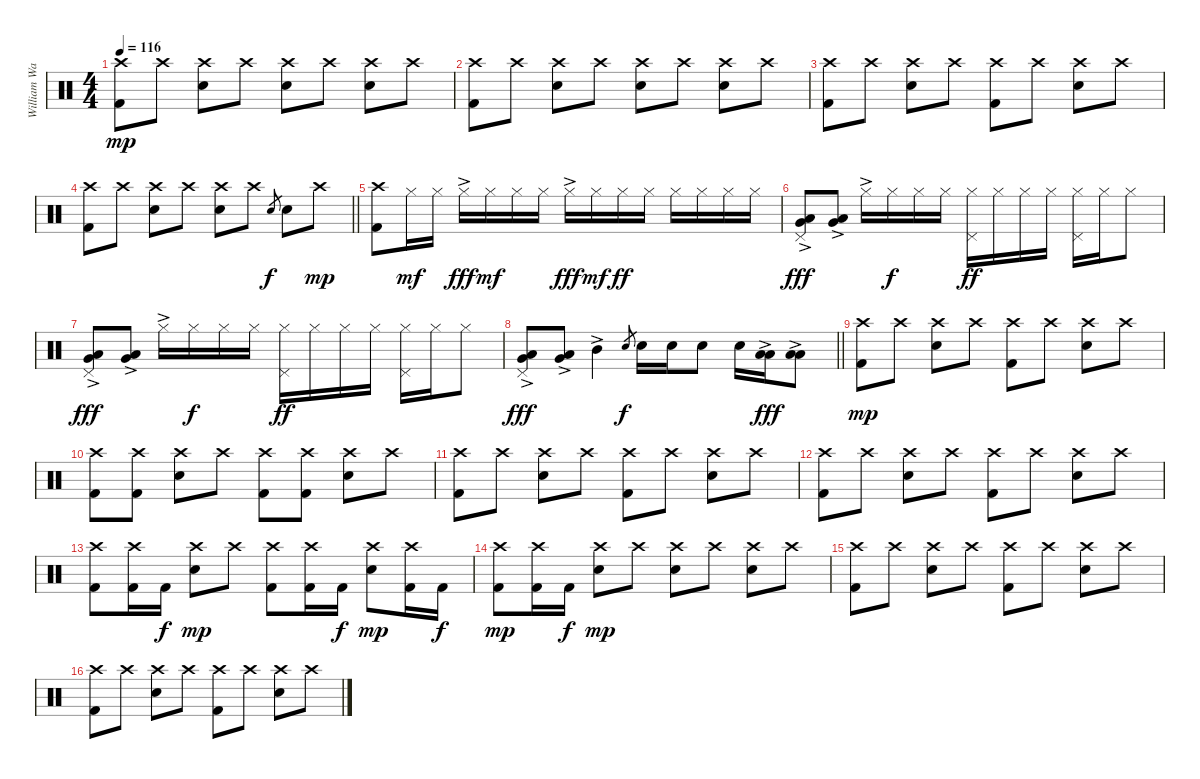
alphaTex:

\track ("William Ward" "William Wa") {instrument percussion}
\staff {score}
\articulation defaults
\ts (4 4)
\tempo 116
\clef neutral
\ks c
("Crash high (hit)" "Kick (hit) 2").8{dy mp} "Crash high (hit)".8 ("Crash high (hit)" "Snare (hit) 2").8 "Crash high (hit)".8 ("Crash high (hit)" "Snare (hit) 2").8 "Crash high (hit)".8 ("Crash high (hit)" "Snare (hit) 2").8 "Crash high (hit)".8 |
("Crash high (hit)" "Kick (hit) 2").8 "Crash high (hit)".8 ("Crash high (hit)" "Snare (hit) 2").8 "Crash high (hit)".8 ("Crash high (hit)" "Snare (hit) 2").8 "Crash high (hit)".8 ("Crash high (hit)" "Snare (hit) 2").8 "Crash high (hit)".8 |
("Crash high (hit)" "Kick (hit) 2").8 "Crash high (hit)".8 ("Crash high (hit)" "Snare (hit) 2").8 "Crash high (hit)".8 ("Crash high (hit)" "Kick (hit) 2").8 "Crash high (hit)".8 ("Crash high (hit)" "Snare (hit) 2").8 "Crash high (hit)".8 |
\barLineRight lightlight
("Crash high (hit)" "Kick (hit) 2").8 "Crash high (hit)".8 ("Crash high (hit)" "Snare (hit) 2").8 "Crash high (hit)".8 ("Crash high (hit)" "Snare (hit) 2").8 "Crash high (hit)".8 "Snare (hit) 2".8{gr dy f} "Snare (hit) 2".8 "Crash high (hit)".8{dy mp} |
("Crash high (hit)" "Kick (hit) 2").8 "Hi-Hat (closed)".16{dy mf} "Hi-Hat (closed)".16 "Hi-Hat (closed)"{ac}.16{dy fff} "Hi-Hat (closed)".16{dy mf} "Hi-Hat (closed)".16 "Hi-Hat (closed)".16 "Hi-Hat (closed)"{ac}.16{dy fff} "Hi-Hat (closed)".16{dy mf} "Hi-Hat (closed)".16{dy ff} "Hi-Hat (closed)".16 "Hi-Hat (closed)".16 "Hi-Hat (closed)".16 "Hi-Hat (closed)".16 "Hi-Hat (closed)".16 |
("Low Tom (hit)"{ac} "Very Low Tom (hit)"{ac} "Pedal Hi-Hat (hit)"{ac}).8{dy fff} ("Low Tom (hit)"{ac} "Very Low Tom (hit)"{ac}).8 "Hi-Hat (closed)"{ac}.16 "Hi-Hat (closed)".16{dy f} "Hi-Hat (closed)".16 "Hi-Hat (closed)".16 ("Hi-Hat (closed)" "Pedal Hi-Hat (hit)").16{dy ff} "Hi-Hat (closed)".16 "Hi-Hat (closed)".16 "Hi-Hat (closed)".16 ("Hi-Hat (closed)" "Pedal Hi-Hat (hit)").16 "Hi-Hat (closed)".16 "Hi-Hat (closed)".8 |
("Low Tom (hit)"{ac} "Very Low Tom (hit)"{ac} "Pedal Hi-Hat (hit)"{ac}).8{dy fff} ("Low Tom (hit)"{ac} "Very Low Tom (hit)"{ac}).8 "Hi-Hat (closed)"{ac}.16 "Hi-Hat (closed)".16{dy f} "Hi-Hat (closed)".16 "Hi-Hat (closed)".16 ("Hi-Hat (closed)" "Pedal Hi-Hat (hit)").16{dy ff} "Hi-Hat (closed)".16 "Hi-Hat (closed)".16 "Hi-Hat (closed)".16 ("Hi-Hat (closed)" "Pedal Hi-Hat (hit)").16 "Hi-Hat (closed)".16 "Hi-Hat (closed)".8 |
\barLineRight lightlight
("Low Tom (hit)"{ac} "Very Low Tom (hit)"{ac} "Pedal Hi-Hat (hit)"{ac}).8{dy fff} ("Low Tom (hit)"{ac} "Very Low Tom (hit)"{ac}).8 "Mid Tom (hit)"{ac}.4 "Snare (hit) 2".8{gr dy f} "Snare (hit) 2".16 "Snare (hit) 2".16 "Snare (hit) 2".8 "Snare (hit) 2".16 ("Low Tom (hit)"{ac} "Low Tom (hit)"{ac}).16{dy fff} ("Low Tom (hit)"{ac} "Low Tom (hit)"{ac}).8 |
("Crash high (hit)" "Kick (hit) 2").8{dy mp} "Crash high (hit)".8 ("Crash high (hit)" "Snare (hit) 2").8 "Crash high (hit)".8 ("Crash high (hit)" "Kick (hit) 2").8 "Crash high (hit)".8 ("Crash high (hit)" "Snare (hit) 2").8 "Crash high (hit)".8 |
("Crash high (hit)" "Kick (hit) 2").8 ("Crash high (hit)" "Kick (hit) 2").8 ("Crash high (hit)" "Snare (hit) 2").8 "Crash high (hit)".8 ("Crash high (hit)" "Kick (hit) 2").8 ("Crash high (hit)" "Kick (hit) 2").8 ("Crash high (hit)" "Snare (hit) 2").8 "Crash high (hit)".8 |
("Crash high (hit)" "Kick (hit) 2").8 "Crash high (hit)".8 ("Crash high (hit)" "Snare (hit) 2").8 "Crash high (hit)".8 ("Crash high (hit)" "Kick (hit) 2").8 "Crash high (hit)".8 ("Crash high (hit)" "Snare (hit) 2").8 "Crash high (hit)".8 |
("Crash high (hit)" "Kick (hit) 2").8 "Crash high (hit)".8 ("Crash high (hit)" "Snare (hit) 2").8 "Crash high (hit)".8 ("Crash high (hit)" "Kick (hit) 2").8 "Crash high (hit)".8 ("Crash high (hit)" "Snare (hit) 2").8 "Crash high (hit)".8 |
("Crash high (hit)" "Kick (hit) 2").8 ("Crash high (hit)" "Kick (hit) 2").16 "Kick (hit) 2".16{dy f} ("Crash high (hit)" "Snare (hit) 2").8{dy mp} "Crash high (hit)".8 ("Crash high (hit)" "Kick (hit) 2").8 ("Crash high (hit)" "Kick (hit) 2").16 "Kick (hit) 2".16{dy f} ("Crash high (hit)" "Snare (hit) 2").8{dy mp} ("Crash high (hit)" "Kick (hit) 2").16 "Kick (hit) 2".16{dy f} |
("Crash high (hit)" "Kick (hit) 2").8{dy mp} ("Crash high (hit)" "Kick (hit) 2").16 "Kick (hit) 2".16{dy f} ("Crash high (hit)" "Snare (hit) 2").8{dy mp} "Crash high (hit)".8 ("Crash high (hit)" "Snare (hit) 2").8 "Crash high (hit)".8 ("Crash high (hit)" "Snare (hit) 2").8 "Crash high (hit)".8 |
("Crash high (hit)" "Kick (hit) 2").8 "Crash high (hit)".8 ("Crash high (hit)" "Snare (hit) 2").8 "Crash high (hit)".8 ("Crash high (hit)" "Kick (hit) 2").8 "Crash high (hit)".8 ("Crash high (hit)" "Snare (hit) 2").8 "Crash high (hit)".8 |
("Crash high (hit)" "Kick (hit) 2").8 "Crash high (hit)".8 ("Crash high (hit)" "Snare (hit) 2").8 "Crash high (hit)".8 ("Crash high (hit)" "Kick (hit) 2").8 "Crash high (hit)".8 ("Crash high (hit)" "Snare (hit) 2").8 "Crash high (hit)".8
